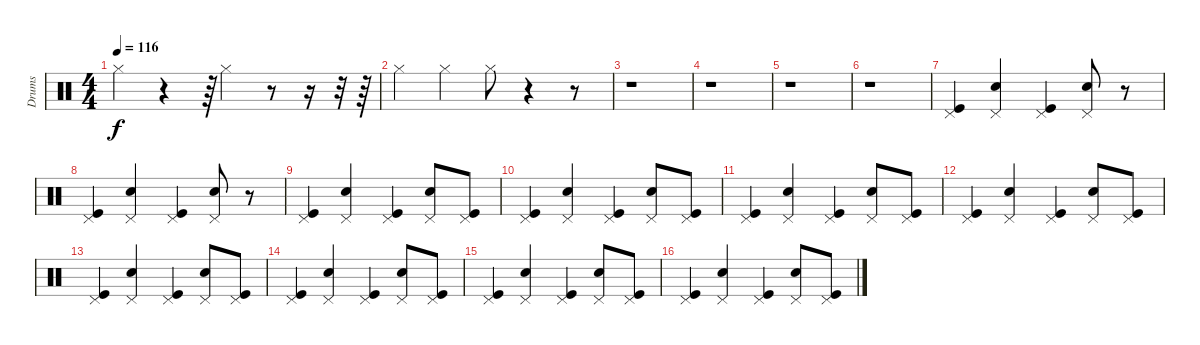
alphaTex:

\track ("Drums" "Drums") {instrument percussion}
\staff {score}
\articulation defaults
\ts (4 4)
\tempo 116
\clef neutral
\ks c "Hi-Hat (closed)".4{dy f}
r.4 r.64 "Hi-Hat (closed)".4 r.8 r.16 r.32 r.64 |
"Hi-Hat (closed)".4 "Hi-Hat (closed)".4 "Hi-Hat (closed)".8 r.4 r.8 |
r.1 |
r.1 |
r.1 |
r.1 |
("Pedal Hi-Hat (hit)" "Kick (hit)").4 ("Pedal Hi-Hat (hit)" "Electric Snare (hit)").4 ("Pedal Hi-Hat (hit)" "Kick (hit)").4 ("Pedal Hi-Hat (hit)" "Electric Snare (hit)").8 r.8 |
("Pedal Hi-Hat (hit)" "Kick (hit)").4 ("Pedal Hi-Hat (hit)" "Electric Snare (hit)").4 ("Pedal Hi-Hat (hit)" "Kick (hit)").4 ("Pedal Hi-Hat (hit)" "Electric Snare (hit)").8 r.8 |
("Pedal Hi-Hat (hit)" "Kick (hit)").4 ("Pedal Hi-Hat (hit)" "Electric Snare (hit)").4 ("Pedal Hi-Hat (hit)" "Kick (hit)").4 ("Electric Snare (hit)" "Pedal Hi-Hat (hit)").8 ("Kick (hit)" "Pedal Hi-Hat (hit)").8 |
("Pedal Hi-Hat (hit)" "Kick (hit)").4 ("Pedal Hi-Hat (hit)" "Electric Snare (hit)").4 ("Pedal Hi-Hat (hit)" "Kick (hit)").4 ("Electric Snare (hit)" "Pedal Hi-Hat (hit)").8 ("Kick (hit)" "Pedal Hi-Hat (hit)").8 |
("Pedal Hi-Hat (hit)" "Kick (hit)").4 ("Pedal Hi-Hat (hit)" "Electric Snare (hit)").4 ("Pedal Hi-Hat (hit)" "Kick (hit)").4 ("Pedal Hi-Hat (hit)" "Electric Snare (hit)").8 ("Pedal Hi-Hat (hit)" "Kick (hit)").8 |
("Pedal Hi-Hat (hit)" "Kick (hit)").4 ("Pedal Hi-Hat (hit)" "Electric Snare (hit)").4 ("Pedal Hi-Hat (hit)" "Kick (hit)").4 ("Pedal Hi-Hat (hit)" "Electric Snare (hit)").8 ("Pedal Hi-Hat (hit)" "Kick (hit)").8 |
("Pedal Hi-Hat (hit)" "Kick (hit)").4 ("Pedal Hi-Hat (hit)" "Electric Snare (hit)").4 ("Pedal Hi-Hat (hit)" "Kick (hit)").4 ("Pedal Hi-Hat (hit)" "Electric Snare (hit)").8 ("Pedal Hi-Hat (hit)" "Kick (hit)").8 |
("Pedal Hi-Hat (hit)" "Kick (hit)").4 ("Pedal Hi-Hat (hit)" "Electric Snare (hit)").4 ("Pedal Hi-Hat (hit)" "Kick (hit)").4 ("Pedal Hi-Hat (hit)" "Electric Snare (hit)").8 ("Pedal Hi-Hat (hit)" "Kick (hit)").8 |
("Pedal Hi-Hat (hit)" "Kick (hit)").4 ("Pedal Hi-Hat (hit)" "Electric Snare (hit)").4 ("Pedal Hi-Hat (hit)" "Kick (hit)").4 ("Pedal Hi-Hat (hit)" "Electric Snare (hit)").8 ("Pedal Hi-Hat (hit)" "Kick (hit)").8 |
("Pedal Hi-Hat (hit)" "Kick (hit)").4 ("Pedal Hi-Hat (hit)" "Electric Snare (hit)").4 ("Pedal Hi-Hat (hit)" "Kick (hit)").4 ("Pedal Hi-Hat (hit)" "Electric Snare (hit)").8 ("Pedal Hi-Hat (hit)" "Kick (hit)").8
